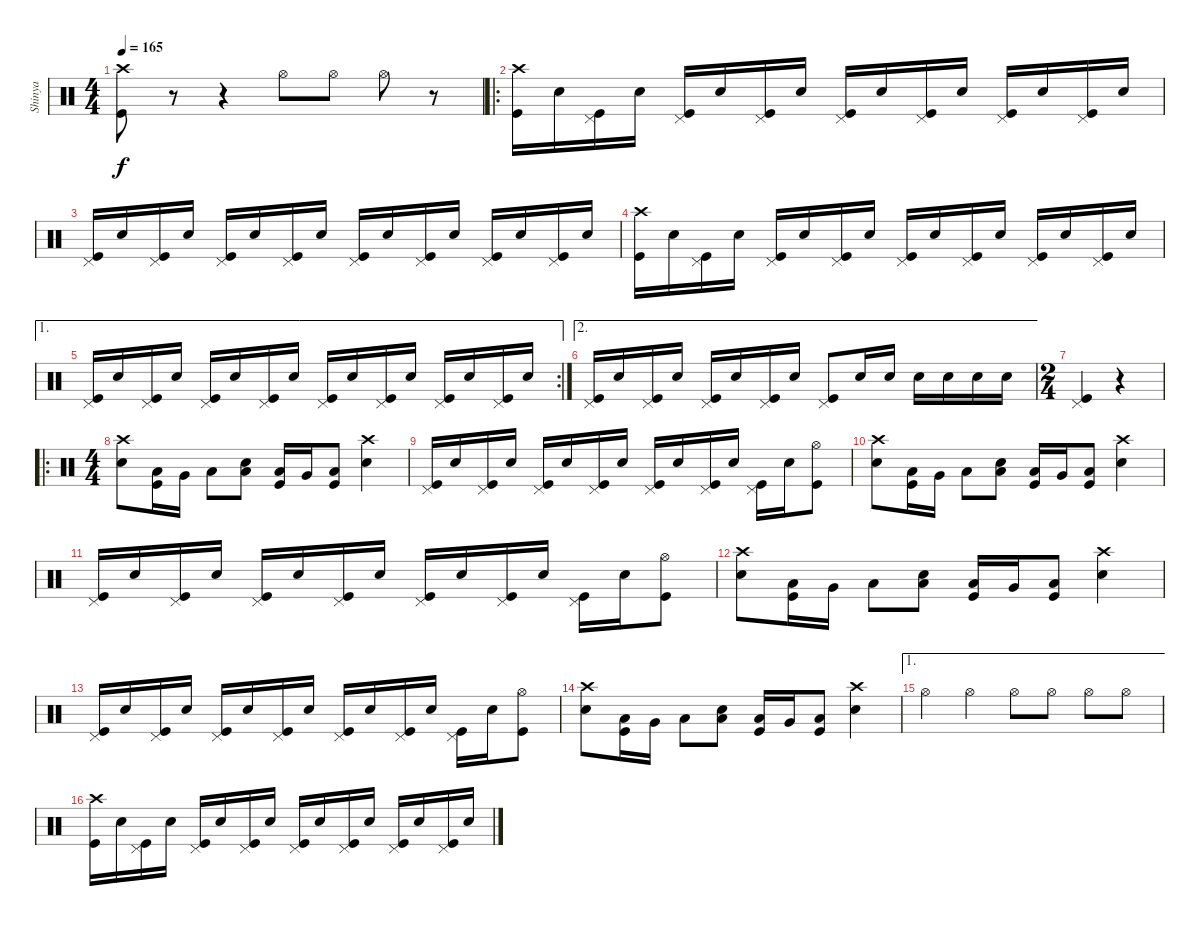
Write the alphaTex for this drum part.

\track ("Shinya" "Shinya") {instrument percussion}
\staff {score}
\articulation defaults
\ts (4 4)
\tempo 165
\clef neutral
\ks c
("Crash high (hit)" "Kick (hit)").8{dy f} r.8 r.4 "Hi-Hat (open)".8 "Hi-Hat (open)".8 "Hi-Hat (open)".8 r.8 |
\ro
("Crash high (hit)" "Kick (hit)").16 "Electric Snare (hit)".16 ("Kick (hit)" "Pedal Hi-Hat (hit)").16 "Electric Snare (hit)".16 ("Pedal Hi-Hat (hit)" "Kick (hit)").16 "Electric Snare (hit)".16 ("Pedal Hi-Hat (hit)" "Kick (hit)").16 "Electric Snare (hit)".16 ("Pedal Hi-Hat (hit)" "Kick (hit)").16 "Electric Snare (hit)".16 ("Kick (hit)" "Pedal Hi-Hat (hit)").16 "Electric Snare (hit)".16 ("Pedal Hi-Hat (hit)" "Kick (hit)").16 "Electric Snare (hit)".16 ("Kick (hit)" "Pedal Hi-Hat (hit)").16 "Electric Snare (hit)".16 |
("Pedal Hi-Hat (hit)" "Kick (hit)").16 "Electric Snare (hit)".16 ("Kick (hit)" "Pedal Hi-Hat (hit)").16 "Electric Snare (hit)".16 ("Pedal Hi-Hat (hit)" "Kick (hit)").16 "Electric Snare (hit)".16 ("Pedal Hi-Hat (hit)" "Kick (hit)").16 "Electric Snare (hit)".16 ("Pedal Hi-Hat (hit)" "Kick (hit)").16 "Electric Snare (hit)".16 ("Kick (hit)" "Pedal Hi-Hat (hit)").16 "Electric Snare (hit)".16 ("Pedal Hi-Hat (hit)" "Kick (hit)").16 "Electric Snare (hit)".16 ("Kick (hit)" "Pedal Hi-Hat (hit)").16 "Electric Snare (hit)".16 |
("Crash high (hit)" "Kick (hit)").16 "Electric Snare (hit)".16 ("Kick (hit)" "Pedal Hi-Hat (hit)").16 "Electric Snare (hit)".16 ("Pedal Hi-Hat (hit)" "Kick (hit)").16 "Electric Snare (hit)".16 ("Pedal Hi-Hat (hit)" "Kick (hit)").16 "Electric Snare (hit)".16 ("Pedal Hi-Hat (hit)" "Kick (hit)").16 "Electric Snare (hit)".16 ("Kick (hit)" "Pedal Hi-Hat (hit)").16 "Electric Snare (hit)".16 ("Pedal Hi-Hat (hit)" "Kick (hit)").16 "Electric Snare (hit)".16 ("Kick (hit)" "Pedal Hi-Hat (hit)").16 "Electric Snare (hit)".16 |
\ae 1
\rc 2
("Pedal Hi-Hat (hit)" "Kick (hit)").16 "Electric Snare (hit)".16 ("Kick (hit)" "Pedal Hi-Hat (hit)").16 "Electric Snare (hit)".16 ("Pedal Hi-Hat (hit)" "Kick (hit)").16 "Electric Snare (hit)".16 ("Pedal Hi-Hat (hit)" "Kick (hit)").16 "Electric Snare (hit)".16 ("Pedal Hi-Hat (hit)" "Kick (hit)").16 "Electric Snare (hit)".16 ("Kick (hit)" "Pedal Hi-Hat (hit)").16 "Electric Snare (hit)".16 ("Pedal Hi-Hat (hit)" "Kick (hit)").16 "Electric Snare (hit)".16 ("Kick (hit)" "Pedal Hi-Hat (hit)").16 "Electric Snare (hit)".16 |
\ae 2
("Pedal Hi-Hat (hit)" "Kick (hit)").16 "Electric Snare (hit)".16 ("Kick (hit)" "Pedal Hi-Hat (hit)").16 "Electric Snare (hit)".16 ("Pedal Hi-Hat (hit)" "Kick (hit)").16 "Electric Snare (hit)".16 ("Kick (hit)" "Pedal Hi-Hat (hit)").16 "Electric Snare (hit)".16 ("Pedal Hi-Hat (hit)" "Kick (hit)").8 "Electric Snare (hit)".16 "Electric Snare (hit)".16 "Electric Snare (hit)".16 "Electric Snare (hit)".16 "Electric Snare (hit)".16 "Electric Snare (hit)".16 |
\ts (2 4)
("Kick (hit)" "Pedal Hi-Hat (hit)").4 r.4 |
\ro
\ts (4 4)
("Crash high (hit)" "Electric Snare (hit)").8 ("Low Floor Tom (hit)" "Kick (hit)").16 "Very Low Tom (hit)".16 "Low Floor Tom (hit)".8 ("Electric Snare (hit)" "Low Floor Tom (hit)").8 ("Low Floor Tom (hit)" "Kick (hit)").16 "Very Low Tom (hit)".16 ("Low Floor Tom (hit)" "Kick (hit)").8 ("Crash high (hit)" "Electric Snare (hit)").4 |
("Pedal Hi-Hat (hit)" "Kick (hit)").16 "Electric Snare (hit)".16 ("Kick (hit)" "Pedal Hi-Hat (hit)").16 "Electric Snare (hit)".16 ("Pedal Hi-Hat (hit)" "Kick (hit)").16 "Electric Snare (hit)".16 ("Pedal Hi-Hat (hit)" "Kick (hit)").16 "Electric Snare (hit)".16 ("Pedal Hi-Hat (hit)" "Kick (hit)").16 "Electric Snare (hit)".16 ("Kick (hit)" "Pedal Hi-Hat (hit)").16 "Electric Snare (hit)".16 ("Pedal Hi-Hat (hit)" "Kick (hit)").16 "Electric Snare (hit)".16 ("Kick (hit)" "Hi-Hat (open)").8 |
("Crash high (hit)" "Electric Snare (hit)").8 ("Low Floor Tom (hit)" "Kick (hit)").16 "Very Low Tom (hit)".16 "Low Floor Tom (hit)".8 ("Electric Snare (hit)" "Low Floor Tom (hit)").8 ("Low Floor Tom (hit)" "Kick (hit)").16 "Very Low Tom (hit)".16 ("Low Floor Tom (hit)" "Kick (hit)").8 ("Crash high (hit)" "Electric Snare (hit)").4 |
("Pedal Hi-Hat (hit)" "Kick (hit)").16 "Electric Snare (hit)".16 ("Kick (hit)" "Pedal Hi-Hat (hit)").16 "Electric Snare (hit)".16 ("Pedal Hi-Hat (hit)" "Kick (hit)").16 "Electric Snare (hit)".16 ("Pedal Hi-Hat (hit)" "Kick (hit)").16 "Electric Snare (hit)".16 ("Pedal Hi-Hat (hit)" "Kick (hit)").16 "Electric Snare (hit)".16 ("Kick (hit)" "Pedal Hi-Hat (hit)").16 "Electric Snare (hit)".16 ("Pedal Hi-Hat (hit)" "Kick (hit)").16 "Electric Snare (hit)".16 ("Kick (hit)" "Hi-Hat (open)").8 |
("Crash high (hit)" "Electric Snare (hit)").8 ("Low Floor Tom (hit)" "Kick (hit)").16 "Very Low Tom (hit)".16 "Low Floor Tom (hit)".8 ("Electric Snare (hit)" "Low Floor Tom (hit)").8 ("Low Floor Tom (hit)" "Kick (hit)").16 "Very Low Tom (hit)".16 ("Low Floor Tom (hit)" "Kick (hit)").8 ("Crash high (hit)" "Electric Snare (hit)").4 |
("Pedal Hi-Hat (hit)" "Kick (hit)").16 "Electric Snare (hit)".16 ("Kick (hit)" "Pedal Hi-Hat (hit)").16 "Electric Snare (hit)".16 ("Pedal Hi-Hat (hit)" "Kick (hit)").16 "Electric Snare (hit)".16 ("Pedal Hi-Hat (hit)" "Kick (hit)").16 "Electric Snare (hit)".16 ("Pedal Hi-Hat (hit)" "Kick (hit)").16 "Electric Snare (hit)".16 ("Kick (hit)" "Pedal Hi-Hat (hit)").16 "Electric Snare (hit)".16 ("Pedal Hi-Hat (hit)" "Kick (hit)").16 "Electric Snare (hit)".16 ("Kick (hit)" "Hi-Hat (open)").8 |
("Crash high (hit)" "Electric Snare (hit)").8 ("Kick (hit)" "Low Floor Tom (hit)").16 "Very Low Tom (hit)".16 "Low Floor Tom (hit)".8 ("Low Floor Tom (hit)" "Electric Snare (hit)").8 ("Kick (hit)" "Low Floor Tom (hit)").16 "Very Low Tom (hit)".16 ("Low Floor Tom (hit)" "Kick (hit)").8 ("Crash high (hit)" "Electric Snare (hit)").4 |
\ae 1 "Hi-Hat (open)".4 "Hi-Hat (open)".4 "Hi-Hat (open)".8 "Hi-Hat (open)".8 "Hi-Hat (open)".8 "Hi-Hat (open)".8
|
("Crash high (hit)" "Kick (hit)").16 "Electric Snare (hit)".16 ("Kick (hit)" "Pedal Hi-Hat (hit)").16 "Electric Snare (hit)".16 ("Pedal Hi-Hat (hit)" "Kick (hit)").16 "Electric Snare (hit)".16 ("Pedal Hi-Hat (hit)" "Kick (hit)").16 "Electric Snare (hit)".16 ("Pedal Hi-Hat (hit)" "Kick (hit)").16 "Electric Snare (hit)".16 ("Kick (hit)" "Pedal Hi-Hat (hit)").16 "Electric Snare (hit)".16 ("Pedal Hi-Hat (hit)" "Kick (hit)").16 "Electric Snare (hit)".16 ("Kick (hit)" "Pedal Hi-Hat (hit)").16 "Electric Snare (hit)".16
